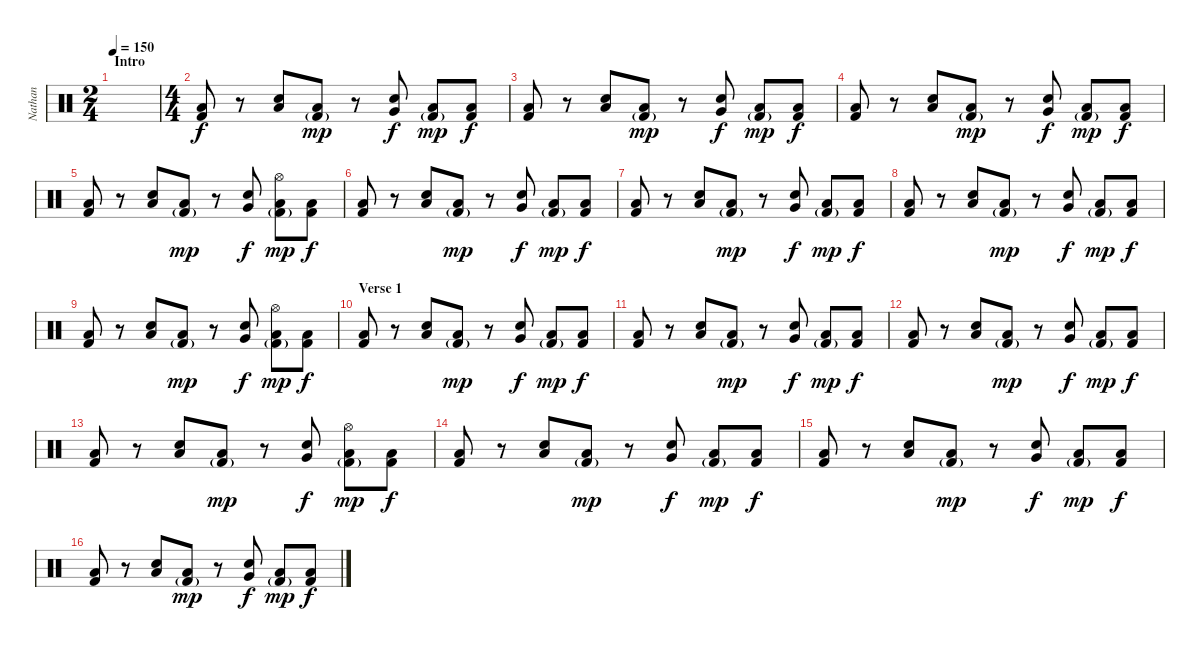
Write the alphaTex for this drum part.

\track ("Nathan" "Nathan") {instrument percussion}
\staff {score}
\articulation defaults
\ts (2 4)
\section ("" "Intro")
\tempo 150
\clef neutral
\ks c
|
\ts (4 4)
("Low Floor Tom (hit)" "Kick (hit) 2").8 r.8 ("Electric Snare (hit)" "Low Tom (hit)").8 ("Low Floor Tom (hit)" "Kick (hit) 2"{g}).8{dy mp} r.8 ("Electric Snare (hit)" "Very Low Tom (hit)").8{dy f} ("Low Floor Tom (hit)" "Kick (hit) 2"{g}).8{dy mp} ("Low Floor Tom (hit)" "Kick (hit) 2").8{dy f} |
("Low Floor Tom (hit)" "Kick (hit) 2").8 r.8 ("Electric Snare (hit)" "Low Tom (hit)").8 ("Low Floor Tom (hit)" "Kick (hit) 2"{g}).8{dy mp} r.8 ("Electric Snare (hit)" "Very Low Tom (hit)").8{dy f} ("Low Floor Tom (hit)" "Kick (hit) 2"{g}).8{dy mp} ("Low Floor Tom (hit)" "Kick (hit) 2").8{dy f} |
("Low Floor Tom (hit)" "Kick (hit) 2").8 r.8 ("Electric Snare (hit)" "Low Tom (hit)").8 ("Low Floor Tom (hit)" "Kick (hit) 2"{g}).8{dy mp} r.8 ("Electric Snare (hit)" "Very Low Tom (hit)").8{dy f} ("Low Floor Tom (hit)" "Kick (hit) 2"{g}).8{dy mp} ("Low Floor Tom (hit)" "Kick (hit) 2").8{dy f} |
("Low Floor Tom (hit)" "Kick (hit) 2").8 r.8 ("Electric Snare (hit)" "Low Tom (hit)").8 ("Low Floor Tom (hit)" "Kick (hit) 2"{g}).8{dy mp} r.8 ("Electric Snare (hit)" "Very Low Tom (hit)").8{dy f} ("Hi-Hat (open)" "Low Floor Tom (hit)" "Kick (hit) 2"{g}).8{dy mp} ("Low Floor Tom (hit)" "Kick (hit) 2").8{dy f} |
("Low Floor Tom (hit)" "Kick (hit) 2").8 r.8 ("Electric Snare (hit)" "Low Tom (hit)").8 ("Low Floor Tom (hit)" "Kick (hit) 2"{g}).8{dy mp} r.8 ("Electric Snare (hit)" "Very Low Tom (hit)").8{dy f} ("Low Floor Tom (hit)" "Kick (hit) 2"{g}).8{dy mp} ("Low Floor Tom (hit)" "Kick (hit) 2").8{dy f} |
("Low Floor Tom (hit)" "Kick (hit) 2").8 r.8 ("Electric Snare (hit)" "Low Tom (hit)").8 ("Low Floor Tom (hit)" "Kick (hit) 2"{g}).8{dy mp} r.8 ("Electric Snare (hit)" "Very Low Tom (hit)").8{dy f} ("Low Floor Tom (hit)" "Kick (hit) 2"{g}).8{dy mp} ("Low Floor Tom (hit)" "Kick (hit) 2").8{dy f} |
("Low Floor Tom (hit)" "Kick (hit) 2").8 r.8 ("Electric Snare (hit)" "Low Tom (hit)").8 ("Low Floor Tom (hit)" "Kick (hit) 2"{g}).8{dy mp} r.8 ("Electric Snare (hit)" "Very Low Tom (hit)").8{dy f} ("Low Floor Tom (hit)" "Kick (hit) 2"{g}).8{dy mp} ("Low Floor Tom (hit)" "Kick (hit) 2").8{dy f} |
("Low Floor Tom (hit)" "Kick (hit) 2").8 r.8 ("Electric Snare (hit)" "Low Tom (hit)").8 ("Low Floor Tom (hit)" "Kick (hit) 2"{g}).8{dy mp} r.8 ("Electric Snare (hit)" "Very Low Tom (hit)").8{dy f} ("Hi-Hat (open)" "Low Floor Tom (hit)" "Kick (hit) 2"{g}).8{dy mp} ("Low Floor Tom (hit)" "Kick (hit) 2").8{dy f} |
\section ("" "Verse 1")
("Low Floor Tom (hit)" "Kick (hit) 2").8 r.8 ("Electric Snare (hit)" "Low Tom (hit)").8 ("Low Floor Tom (hit)" "Kick (hit) 2"{g}).8{dy mp} r.8 ("Electric Snare (hit)" "Very Low Tom (hit)").8{dy f} ("Low Floor Tom (hit)" "Kick (hit) 2"{g}).8{dy mp} ("Low Floor Tom (hit)" "Kick (hit) 2").8{dy f} |
("Low Floor Tom (hit)" "Kick (hit) 2").8 r.8 ("Electric Snare (hit)" "Low Tom (hit)").8 ("Low Floor Tom (hit)" "Kick (hit) 2"{g}).8{dy mp} r.8 ("Electric Snare (hit)" "Very Low Tom (hit)").8{dy f} ("Low Floor Tom (hit)" "Kick (hit) 2"{g}).8{dy mp} ("Low Floor Tom (hit)" "Kick (hit) 2").8{dy f} |
("Low Floor Tom (hit)" "Kick (hit) 2").8 r.8 ("Electric Snare (hit)" "Low Tom (hit)").8 ("Low Floor Tom (hit)" "Kick (hit) 2"{g}).8{dy mp} r.8 ("Electric Snare (hit)" "Very Low Tom (hit)").8{dy f} ("Low Floor Tom (hit)" "Kick (hit) 2"{g}).8{dy mp} ("Low Floor Tom (hit)" "Kick (hit) 2").8{dy f} |
("Low Floor Tom (hit)" "Kick (hit) 2").8 r.8 ("Electric Snare (hit)" "Low Tom (hit)").8 ("Low Floor Tom (hit)" "Kick (hit) 2"{g}).8{dy mp} r.8 ("Electric Snare (hit)" "Very Low Tom (hit)").8{dy f} ("Hi-Hat (open)" "Low Floor Tom (hit)" "Kick (hit) 2"{g}).8{dy mp} ("Low Floor Tom (hit)" "Kick (hit) 2").8{dy f} |
("Low Floor Tom (hit)" "Kick (hit) 2").8 r.8 ("Electric Snare (hit)" "Low Tom (hit)").8 ("Low Floor Tom (hit)" "Kick (hit) 2"{g}).8{dy mp} r.8 ("Electric Snare (hit)" "Very Low Tom (hit)").8{dy f} ("Low Floor Tom (hit)" "Kick (hit) 2"{g}).8{dy mp} ("Low Floor Tom (hit)" "Kick (hit) 2").8{dy f} |
("Low Floor Tom (hit)" "Kick (hit) 2").8 r.8 ("Electric Snare (hit)" "Low Tom (hit)").8 ("Low Floor Tom (hit)" "Kick (hit) 2"{g}).8{dy mp} r.8 ("Electric Snare (hit)" "Very Low Tom (hit)").8{dy f} ("Low Floor Tom (hit)" "Kick (hit) 2"{g}).8{dy mp} ("Low Floor Tom (hit)" "Kick (hit) 2").8{dy f} |
("Low Floor Tom (hit)" "Kick (hit) 2").8 r.8 ("Electric Snare (hit)" "Low Tom (hit)").8 ("Low Floor Tom (hit)" "Kick (hit) 2"{g}).8{dy mp} r.8 ("Electric Snare (hit)" "Very Low Tom (hit)").8{dy f} ("Low Floor Tom (hit)" "Kick (hit) 2"{g}).8{dy mp} ("Low Floor Tom (hit)" "Kick (hit) 2").8{dy f}
